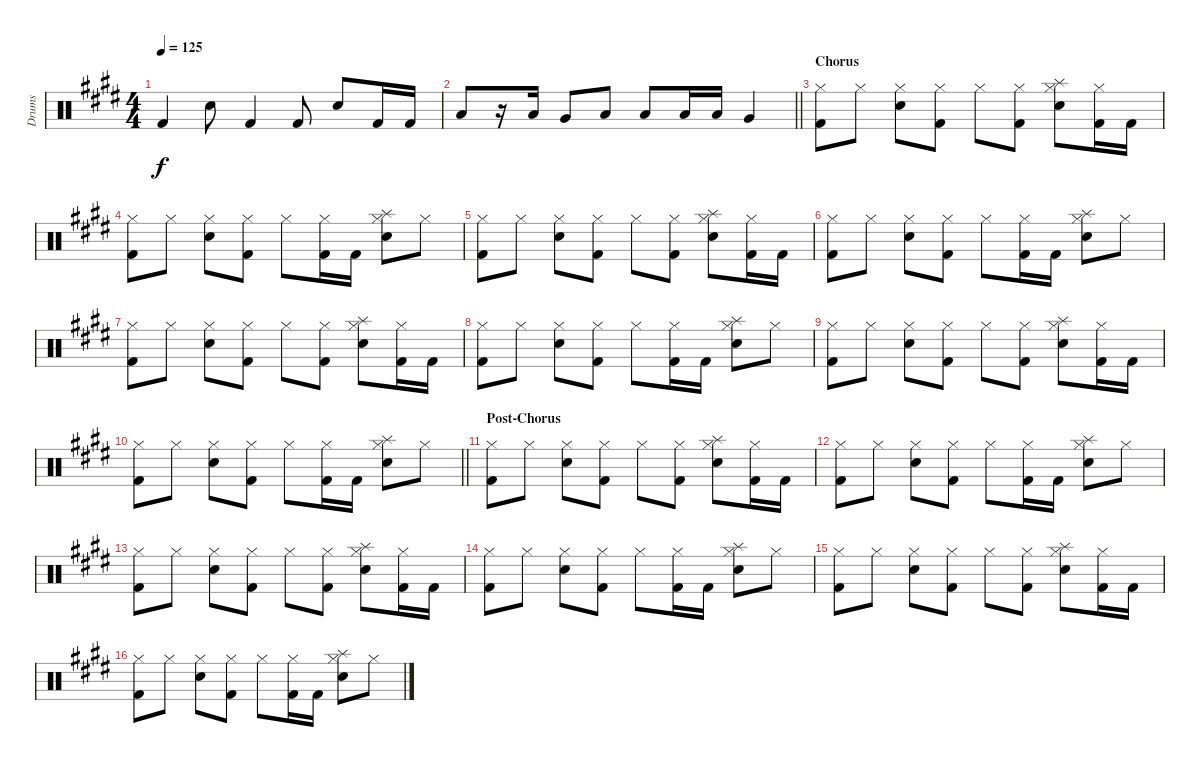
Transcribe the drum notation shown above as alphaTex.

\track ("Drums" "Drums") {instrument percussion}
\staff {score}
\articulation defaults
\ts (4 4)
\tempo 125
\clef neutral
\ks c#minor "Kick (hit) 2".4{dy f} "Snare (hit) 2".8 "Kick (hit) 2".4 "Kick (hit) 2".8 "Snare (hit) 2".8 "Kick (hit) 2".16 "Kick (hit) 2".16
|
\barLineRight lightlight "Low Floor Tom (hit)".8
r.16 "Low Floor Tom (hit)".16 "Very Low Tom (hit)".8 "Low Floor Tom (hit)".8 "Low Floor Tom (hit)".8 "Low Floor Tom (hit)".16 "Low Floor Tom (hit)".16 "Very Low Tom (hit)".4 |
\section ("" "Chorus")
("Hi-Hat (closed)" "Kick (hit) 2").8 "Hi-Hat (closed)".8 ("Hi-Hat (closed)" "Snare (hit) 2").8 ("Hi-Hat (closed)" "Kick (hit) 2").8 "Hi-Hat (closed)".8 ("Hi-Hat (closed)" "Kick (hit) 2").8 ("Hi-Hat (closed)" "Snare (hit) 2" "Splash (hit)").8 ("Hi-Hat (closed)" "Kick (hit) 2").16 "Kick (hit) 2".16 |
("Hi-Hat (closed)" "Kick (hit) 2").8 "Hi-Hat (closed)".8 ("Hi-Hat (closed)" "Snare (hit) 2").8 ("Hi-Hat (closed)" "Kick (hit) 2").8 "Hi-Hat (closed)".8 ("Hi-Hat (closed)" "Kick (hit) 2").16 "Kick (hit) 2".16 ("Hi-Hat (closed)" "Snare (hit) 2" "Splash (hit)").8 "Hi-Hat (closed)".8 |
("Hi-Hat (closed)" "Kick (hit) 2").8 "Hi-Hat (closed)".8 ("Hi-Hat (closed)" "Snare (hit) 2").8 ("Hi-Hat (closed)" "Kick (hit) 2").8 "Hi-Hat (closed)".8 ("Hi-Hat (closed)" "Kick (hit) 2").8 ("Hi-Hat (closed)" "Snare (hit) 2" "Splash (hit)").8 ("Hi-Hat (closed)" "Kick (hit) 2").16 "Kick (hit) 2".16 |
("Hi-Hat (closed)" "Kick (hit) 2").8 "Hi-Hat (closed)".8 ("Hi-Hat (closed)" "Snare (hit) 2").8 ("Hi-Hat (closed)" "Kick (hit) 2").8 "Hi-Hat (closed)".8 ("Hi-Hat (closed)" "Kick (hit) 2").16 "Kick (hit) 2".16 ("Hi-Hat (closed)" "Snare (hit) 2" "Splash (hit)").8 "Hi-Hat (closed)".8 |
("Hi-Hat (closed)" "Kick (hit) 2").8 "Hi-Hat (closed)".8 ("Hi-Hat (closed)" "Snare (hit) 2").8 ("Hi-Hat (closed)" "Kick (hit) 2").8 "Hi-Hat (closed)".8 ("Hi-Hat (closed)" "Kick (hit) 2").8 ("Hi-Hat (closed)" "Snare (hit) 2" "Splash (hit)").8 ("Hi-Hat (closed)" "Kick (hit) 2").16 "Kick (hit) 2".16 |
("Hi-Hat (closed)" "Kick (hit) 2").8 "Hi-Hat (closed)".8 ("Hi-Hat (closed)" "Snare (hit) 2").8 ("Hi-Hat (closed)" "Kick (hit) 2").8 "Hi-Hat (closed)".8 ("Hi-Hat (closed)" "Kick (hit) 2").16 "Kick (hit) 2".16 ("Hi-Hat (closed)" "Snare (hit) 2" "Splash (hit)").8 "Hi-Hat (closed)".8 |
("Hi-Hat (closed)" "Kick (hit) 2").8 "Hi-Hat (closed)".8 ("Hi-Hat (closed)" "Snare (hit) 2").8 ("Hi-Hat (closed)" "Kick (hit) 2").8 "Hi-Hat (closed)".8 ("Hi-Hat (closed)" "Kick (hit) 2").8 ("Hi-Hat (closed)" "Snare (hit) 2" "Splash (hit)").8 ("Hi-Hat (closed)" "Kick (hit) 2").16 "Kick (hit) 2".16 |
\barLineRight lightlight
("Hi-Hat (closed)" "Kick (hit) 2").8 "Hi-Hat (closed)".8 ("Hi-Hat (closed)" "Snare (hit) 2").8 ("Hi-Hat (closed)" "Kick (hit) 2").8 "Hi-Hat (closed)".8 ("Hi-Hat (closed)" "Kick (hit) 2").16 "Kick (hit) 2".16 ("Hi-Hat (closed)" "Snare (hit) 2" "Splash (hit)").8 "Hi-Hat (closed)".8 |
\section ("" "Post-Chorus")
("Hi-Hat (closed)" "Kick (hit) 2").8 "Hi-Hat (closed)".8 ("Hi-Hat (closed)" "Snare (hit) 2").8 ("Hi-Hat (closed)" "Kick (hit) 2").8 "Hi-Hat (closed)".8 ("Hi-Hat (closed)" "Kick (hit) 2").8 ("Hi-Hat (closed)" "Snare (hit) 2" "Splash (hit)").8 ("Hi-Hat (closed)" "Kick (hit) 2").16 "Kick (hit) 2".16 |
("Hi-Hat (closed)" "Kick (hit) 2").8 "Hi-Hat (closed)".8 ("Hi-Hat (closed)" "Snare (hit) 2").8 ("Hi-Hat (closed)" "Kick (hit) 2").8 "Hi-Hat (closed)".8 ("Hi-Hat (closed)" "Kick (hit) 2").16 "Kick (hit) 2".16 ("Hi-Hat (closed)" "Snare (hit) 2" "Splash (hit)").8 "Hi-Hat (closed)".8 |
("Hi-Hat (closed)" "Kick (hit) 2").8 "Hi-Hat (closed)".8 ("Hi-Hat (closed)" "Snare (hit) 2").8 ("Hi-Hat (closed)" "Kick (hit) 2").8 "Hi-Hat (closed)".8 ("Hi-Hat (closed)" "Kick (hit) 2").8 ("Hi-Hat (closed)" "Snare (hit) 2" "Splash (hit)").8 ("Hi-Hat (closed)" "Kick (hit) 2").16 "Kick (hit) 2".16 |
("Hi-Hat (closed)" "Kick (hit) 2").8 "Hi-Hat (closed)".8 ("Hi-Hat (closed)" "Snare (hit) 2").8 ("Hi-Hat (closed)" "Kick (hit) 2").8 "Hi-Hat (closed)".8 ("Hi-Hat (closed)" "Kick (hit) 2").16 "Kick (hit) 2".16 ("Hi-Hat (closed)" "Snare (hit) 2" "Splash (hit)").8 "Hi-Hat (closed)".8 |
("Hi-Hat (closed)" "Kick (hit) 2").8 "Hi-Hat (closed)".8 ("Hi-Hat (closed)" "Snare (hit) 2").8 ("Hi-Hat (closed)" "Kick (hit) 2").8 "Hi-Hat (closed)".8 ("Hi-Hat (closed)" "Kick (hit) 2").8 ("Hi-Hat (closed)" "Snare (hit) 2" "Splash (hit)").8 ("Hi-Hat (closed)" "Kick (hit) 2").16 "Kick (hit) 2".16 |
("Hi-Hat (closed)" "Kick (hit) 2").8 "Hi-Hat (closed)".8 ("Hi-Hat (closed)" "Snare (hit) 2").8 ("Hi-Hat (closed)" "Kick (hit) 2").8 "Hi-Hat (closed)".8 ("Hi-Hat (closed)" "Kick (hit) 2").16 "Kick (hit) 2".16 ("Hi-Hat (closed)" "Snare (hit) 2" "Splash (hit)").8 "Hi-Hat (closed)".8
